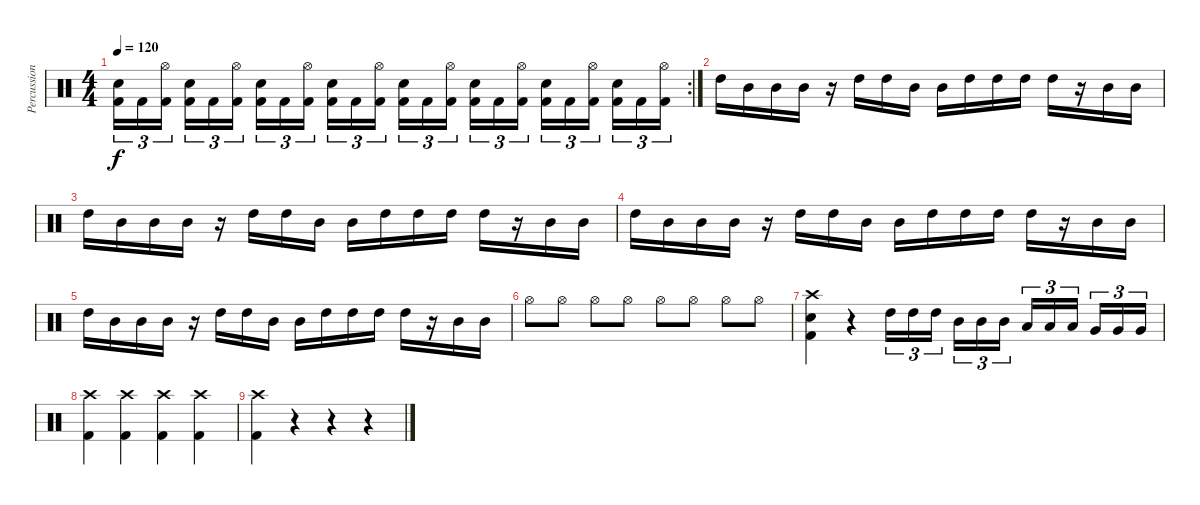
\track ("Percussion" "Percussion") {instrument percussion}
\staff {score}
\articulation defaults
\rc 2
\ts (4 4)
\tempo 120
\clef neutral
\ks c
("Electric Snare (hit)" "Kick (hit) 2").16{tu (3 2) dy f} "Kick (hit) 2".16{tu (3 2)} ("Hi-Hat (open)" "Kick (hit) 2").16{tu (3 2)} ("Electric Snare (hit)" "Kick (hit) 2").16{tu (3 2)} "Kick (hit) 2".16{tu (3 2)} ("Hi-Hat (open)" "Kick (hit) 2").16{tu (3 2)} ("Electric Snare (hit)" "Kick (hit) 2").16{tu (3 2)} "Kick (hit) 2".16{tu (3 2)} ("Hi-Hat (open)" "Kick (hit) 2").16{tu (3 2)} ("Electric Snare (hit)" "Kick (hit) 2").16{tu (3 2)} "Kick (hit) 2".16{tu (3 2)} ("Hi-Hat (open)" "Kick (hit) 2").16{tu (3 2)} ("Electric Snare (hit)" "Kick (hit) 2").16{tu (3 2)} "Kick (hit) 2".16{tu (3 2)} ("Hi-Hat (open)" "Kick (hit) 2").16{tu (3 2)} ("Electric Snare (hit)" "Kick (hit) 2").16{tu (3 2)} "Kick (hit) 2".16{tu (3 2)} ("Hi-Hat (open)" "Kick (hit) 2").16{tu (3 2)} ("Electric Snare (hit)" "Kick (hit) 2").16{tu (3 2)} "Kick (hit) 2".16{tu (3 2)} ("Hi-Hat (open)" "Kick (hit) 2").16{tu (3 2)} ("Electric Snare (hit)" "Kick (hit) 2").16{tu (3 2)} "Kick (hit) 2".16{tu (3 2)} ("Hi-Hat (open)" "Kick (hit) 2").16{tu (3 2)} |
"High Tom (hit)".16 "Mid Tom (hit)".16 "Mid Tom (hit)".16 "Mid Tom (hit)".16 r.16 "High Tom (hit)".16 "High Tom (hit)".16 "Mid Tom (hit)".16 "Mid Tom (hit)".16 "High Tom (hit)".16 "High Tom (hit)".16 "High Tom (hit)".16 "High Tom (hit)".16 r.16 "Mid Tom (hit)".16 "Mid Tom (hit)".16 |
"High Tom (hit)".16 "Mid Tom (hit)".16 "Mid Tom (hit)".16 "Mid Tom (hit)".16 r.16 "High Tom (hit)".16 "High Tom (hit)".16 "Mid Tom (hit)".16 "Mid Tom (hit)".16 "High Tom (hit)".16 "High Tom (hit)".16 "High Tom (hit)".16 "High Tom (hit)".16 r.16 "Mid Tom (hit)".16 "Mid Tom (hit)".16 |
"High Tom (hit)".16 "Mid Tom (hit)".16 "Mid Tom (hit)".16 "Mid Tom (hit)".16 r.16 "High Tom (hit)".16 "High Tom (hit)".16 "Mid Tom (hit)".16 "Mid Tom (hit)".16 "High Tom (hit)".16 "High Tom (hit)".16 "High Tom (hit)".16 "High Tom (hit)".16 r.16 "Mid Tom (hit)".16 "Mid Tom (hit)".16 |
"High Tom (hit)".16 "Mid Tom (hit)".16 "Mid Tom (hit)".16 "Mid Tom (hit)".16 r.16 "High Tom (hit)".16 "High Tom (hit)".16 "Mid Tom (hit)".16 "Mid Tom (hit)".16 "High Tom (hit)".16 "High Tom (hit)".16 "High Tom (hit)".16 "High Tom (hit)".16 r.16 "Mid Tom (hit)".16 "Mid Tom (hit)".16 |
"Hi-Hat (open)".8 "Hi-Hat (open)".8 "Hi-Hat (open)".8 "Hi-Hat (open)".8 "Hi-Hat (open)".8 "Hi-Hat (open)".8 "Hi-Hat (open)".8 "Hi-Hat (open)".8 |
("Crash high (hit)" "Kick (hit) 2" "Electric Snare (hit)").4 r.4 "High Tom (hit)".16{tu (3 2)} "High Tom (hit)".16{tu (3 2)} "High Tom (hit)".16{tu (3 2)} "Mid Tom (hit)".16{tu (3 2)} "Mid Tom (hit)".16{tu (3 2)} "Mid Tom (hit)".16{tu (3 2)} "Low Tom (hit)".16{tu (3 2)} "Low Tom (hit)".16{tu (3 2)} "Low Tom (hit)".16{tu (3 2)} "Very Low Tom (hit)".16{tu (3 2)} "Very Low Tom (hit)".16{tu (3 2)} "Very Low Tom (hit)".16{tu (3 2)} |
("Crash high (hit)" "Kick (hit) 2").4 ("Crash high (hit)" "Kick (hit) 2").4 ("Crash high (hit)" "Kick (hit) 2").4 ("Crash high (hit)" "Kick (hit) 2").4 |
("Crash high (hit)" "Kick (hit) 2").4 r.4 r.4 r.4
